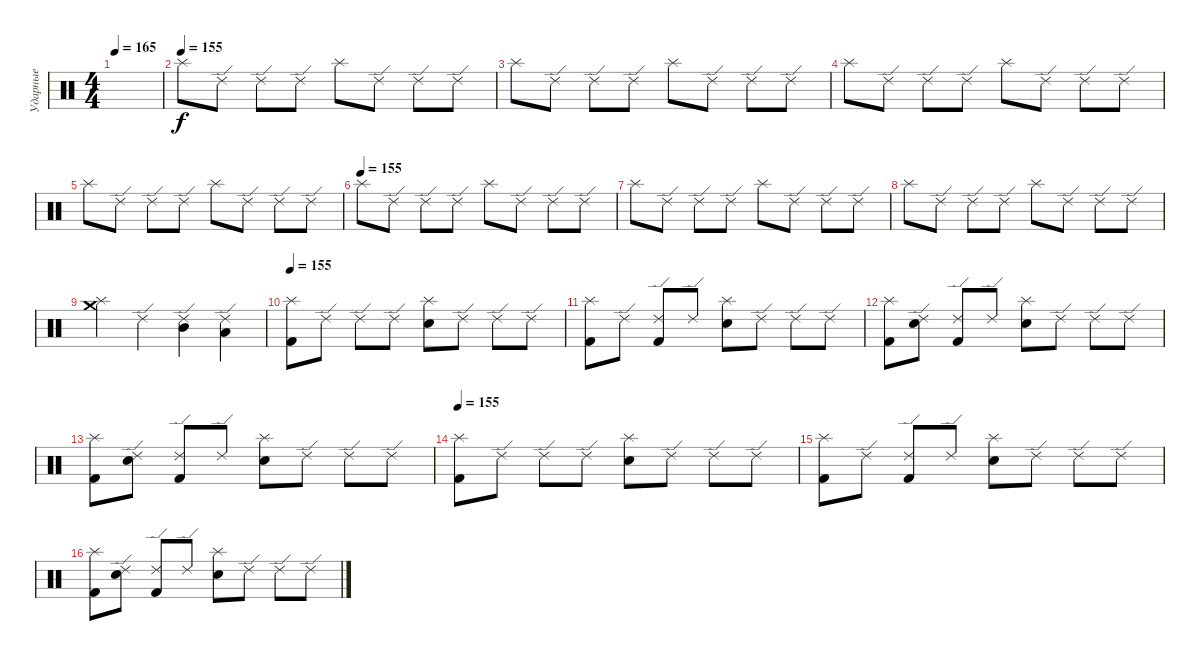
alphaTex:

\track ("Ударные" "Ударные") {instrument percussion}
\staff {score}
\articulation defaults
\ts (4 4)
\tempo 165
\clef neutral
\ks c
|
\tempo (155)
"Splash (hit)".8 "Ride (edge) 2".8 "Ride (edge) 2".8 "Ride (edge) 2".8 "Splash (hit)".8 "Ride (edge) 2".8 "Ride (edge) 2".8 "Ride (edge) 2".8 |
"Splash (hit)".8 "Ride (edge) 2".8 "Ride (edge) 2".8 "Ride (edge) 2".8 "Splash (hit)".8 "Ride (edge) 2".8 "Ride (edge) 2".8 "Ride (edge) 2".8 |
"Splash (hit)".8 "Ride (edge) 2".8 "Ride (edge) 2".8 "Ride (edge) 2".8 "Splash (hit)".8 "Ride (edge) 2".8 "Ride (edge) 2".8 "Ride (edge) 2".8 |
"Splash (hit)".8 "Ride (edge) 2".8 "Ride (edge) 2".8 "Ride (edge) 2".8 "Splash (hit)".8 "Ride (edge) 2".8 "Ride (edge) 2".8 "Ride (edge) 2".8 |
\tempo (155)
"Splash (hit)".8 "Ride (edge) 2".8 "Ride (edge) 2".8 "Ride (edge) 2".8 "Splash (hit)".8 "Ride (edge) 2".8 "Ride (edge) 2".8 "Ride (edge) 2".8 |
"Splash (hit)".8 "Ride (edge) 2".8 "Ride (edge) 2".8 "Ride (edge) 2".8 "Splash (hit)".8 "Ride (edge) 2".8 "Ride (edge) 2".8 "Ride (edge) 2".8 |
"Splash (hit)".8 "Ride (edge) 2".8 "Ride (edge) 2".8 "Ride (edge) 2".8 "Splash (hit)".8 "Ride (edge) 2".8 "Ride (edge) 2".8 "Ride (edge) 2".8 |
("Splash (hit)" "Crash medium (hit)").4 "Ride (edge) 2".4 ("Ride (edge) 2" "Mid Tom (hit)").4 ("Ride (edge) 2" "Low Tom (hit)").4 |
\tempo 155
("Splash (hit)" "Kick (hit) 2").8 "Ride (edge) 2".8 "Ride (edge) 2".8 "Ride (edge) 2".8 ("Splash (hit)" "Snare (hit) 2").8 "Ride (edge) 2".8 "Ride (edge) 2".8 "Ride (edge) 2".8 |
("Splash (hit)" "Kick (hit) 2").8 "Ride (edge) 2".8 ("Ride (edge) 2" "Kick (hit) 2").8 "Ride (edge) 2".8 ("Splash (hit)" "Snare (hit) 2").8 "Ride (edge) 2".8 "Ride (edge) 2".8 "Ride (edge) 2".8 |
("Splash (hit)" "Kick (hit) 2").8 ("Ride (edge) 2" "Snare (hit) 2").8 ("Ride (edge) 2" "Kick (hit) 2").8 "Ride (edge) 2".8 ("Splash (hit)" "Snare (hit) 2").8 "Ride (edge) 2".8 "Ride (edge) 2".8 "Ride (edge) 2".8 |
("Splash (hit)" "Kick (hit) 2").8 ("Ride (edge) 2" "Snare (hit) 2").8 ("Ride (edge) 2" "Kick (hit) 2").8 "Ride (edge) 2".8 ("Splash (hit)" "Snare (hit) 2").8 "Ride (edge) 2".8 "Ride (edge) 2".8 "Ride (edge) 2".8 |
\tempo 155
("Splash (hit)" "Kick (hit) 2").8 "Ride (edge) 2".8 "Ride (edge) 2".8 "Ride (edge) 2".8 ("Splash (hit)" "Snare (hit) 2").8 "Ride (edge) 2".8 "Ride (edge) 2".8 "Ride (edge) 2".8 |
("Splash (hit)" "Kick (hit) 2").8 "Ride (edge) 2".8 ("Ride (edge) 2" "Kick (hit) 2").8 "Ride (edge) 2".8 ("Splash (hit)" "Snare (hit) 2").8 "Ride (edge) 2".8 "Ride (edge) 2".8 "Ride (edge) 2".8 |
("Splash (hit)" "Kick (hit) 2").8 ("Ride (edge) 2" "Snare (hit) 2").8 ("Ride (edge) 2" "Kick (hit) 2").8 "Ride (edge) 2".8 ("Splash (hit)" "Snare (hit) 2").8 "Ride (edge) 2".8 "Ride (edge) 2".8 "Ride (edge) 2".8
